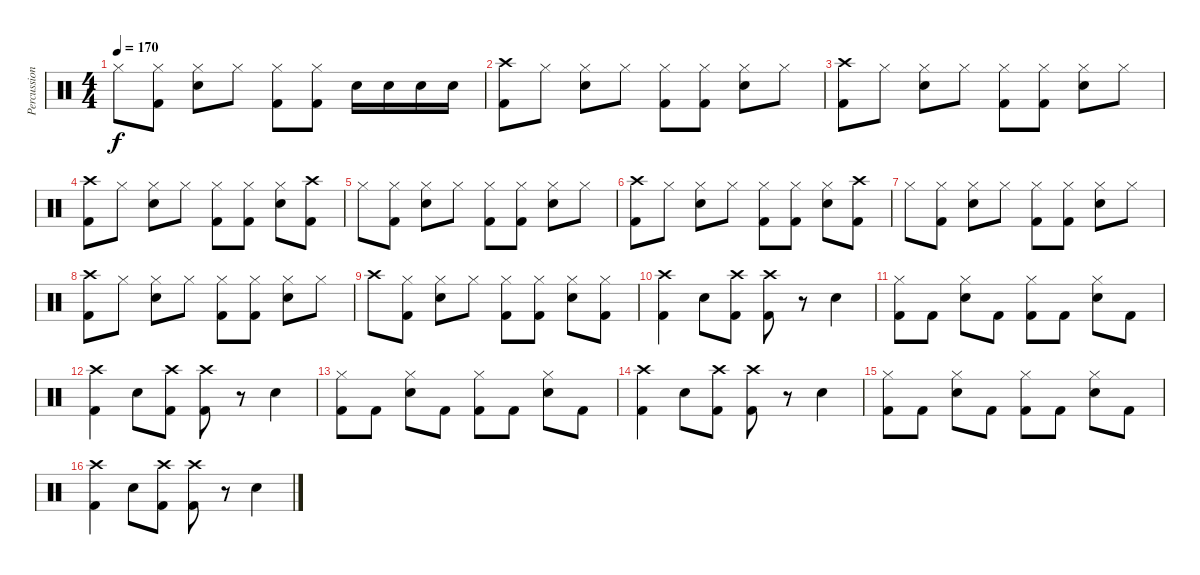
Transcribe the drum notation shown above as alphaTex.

\track ("Percussion" "Percussion") {instrument percussion}
\staff {score}
\articulation defaults
\ts (4 4)
\tempo 170
\clef neutral
\ks c "Hi-Hat (closed)".8{dy f}
("Hi-Hat (closed)" "Kick (hit) 2").8 ("Hi-Hat (closed)" "Snare (hit) 2").8 "Hi-Hat (closed)".8 ("Hi-Hat (closed)" "Kick (hit) 2").8 ("Hi-Hat (closed)" "Kick (hit) 2").8 "Snare (hit) 2".16 "Snare (hit) 2".16 "Snare (hit) 2".16 "Snare (hit) 2".16 |
("Crash high (hit)" "Kick (hit) 2").8 "Hi-Hat (closed)".8 ("Hi-Hat (closed)" "Snare (hit) 2").8 "Hi-Hat (closed)".8 ("Hi-Hat (closed)" "Kick (hit) 2").8 ("Hi-Hat (closed)" "Kick (hit) 2").8 ("Hi-Hat (closed)" "Snare (hit) 2").8 "Hi-Hat (closed)".8 |
("Crash high (hit)" "Kick (hit) 2").8 "Hi-Hat (closed)".8 ("Hi-Hat (closed)" "Snare (hit) 2").8 "Hi-Hat (closed)".8 ("Hi-Hat (closed)" "Kick (hit) 2").8 ("Hi-Hat (closed)" "Kick (hit) 2").8 ("Hi-Hat (closed)" "Snare (hit) 2").8 "Hi-Hat (closed)".8 |
("Crash high (hit)" "Kick (hit) 2").8 "Hi-Hat (closed)".8 ("Hi-Hat (closed)" "Snare (hit) 2").8 "Hi-Hat (closed)".8 ("Hi-Hat (closed)" "Kick (hit) 2").8 ("Hi-Hat (closed)" "Kick (hit) 2").8 ("Hi-Hat (closed)" "Snare (hit) 2").8 ("Crash high (hit)" "Kick (hit) 2").8 |
"Hi-Hat (closed)".8 ("Hi-Hat (closed)" "Kick (hit) 2").8 ("Hi-Hat (closed)" "Snare (hit) 2").8 "Hi-Hat (closed)".8 ("Hi-Hat (closed)" "Kick (hit) 2").8 ("Hi-Hat (closed)" "Kick (hit) 2").8 ("Hi-Hat (closed)" "Snare (hit) 2").8 "Hi-Hat (closed)".8 |
("Crash high (hit)" "Kick (hit) 2").8 "Hi-Hat (closed)".8 ("Hi-Hat (closed)" "Snare (hit) 2").8 "Hi-Hat (closed)".8 ("Hi-Hat (closed)" "Kick (hit) 2").8 ("Hi-Hat (closed)" "Kick (hit) 2").8 ("Hi-Hat (closed)" "Snare (hit) 2").8 ("Crash high (hit)" "Kick (hit) 2").8 |
"Hi-Hat (closed)".8 ("Hi-Hat (closed)" "Kick (hit) 2").8 ("Hi-Hat (closed)" "Snare (hit) 2").8 "Hi-Hat (closed)".8 ("Hi-Hat (closed)" "Kick (hit) 2").8 ("Hi-Hat (closed)" "Kick (hit) 2").8 ("Hi-Hat (closed)" "Snare (hit) 2").8 "Hi-Hat (closed)".8 |
("Crash high (hit)" "Kick (hit) 2").8 "Hi-Hat (closed)".8 ("Hi-Hat (closed)" "Snare (hit) 2").8 "Hi-Hat (closed)".8 ("Hi-Hat (closed)" "Kick (hit) 2").8 ("Hi-Hat (closed)" "Kick (hit) 2").8 ("Hi-Hat (closed)" "Snare (hit) 2").8 "Hi-Hat (closed)".8 |
"Crash high (hit)".8 ("Hi-Hat (closed)" "Kick (hit) 2").8 ("Hi-Hat (closed)" "Snare (hit) 2").8 "Hi-Hat (closed)".8 ("Hi-Hat (closed)" "Kick (hit) 2").8 ("Hi-Hat (closed)" "Kick (hit) 2").8 ("Hi-Hat (closed)" "Snare (hit) 2").8 ("Hi-Hat (closed)" "Kick (hit) 2").8 |
("Crash high (hit)" "Kick (hit) 2").4 "Snare (hit) 2".8 ("Crash high (hit)" "Kick (hit) 2").8 ("Crash high (hit)" "Kick (hit) 2").8 r.8 "Snare (hit) 2".4 |
("Hi-Hat (closed)" "Kick (hit) 2").8 "Kick (hit) 2".8 ("Hi-Hat (closed)" "Snare (hit) 2").8 "Kick (hit) 2".8 ("Hi-Hat (closed)" "Kick (hit) 2").8 "Kick (hit) 2".8 ("Hi-Hat (closed)" "Snare (hit) 2").8 "Kick (hit) 2".8 |
("Crash high (hit)" "Kick (hit) 2").4 "Snare (hit) 2".8 ("Crash high (hit)" "Kick (hit) 2").8 ("Crash high (hit)" "Kick (hit) 2").8 r.8 "Snare (hit) 2".4 |
("Hi-Hat (closed)" "Kick (hit) 2").8 "Kick (hit) 2".8 ("Hi-Hat (closed)" "Snare (hit) 2").8 "Kick (hit) 2".8 ("Hi-Hat (closed)" "Kick (hit) 2").8 "Kick (hit) 2".8 ("Hi-Hat (closed)" "Snare (hit) 2").8 "Kick (hit) 2".8 |
("Crash high (hit)" "Kick (hit) 2").4 "Snare (hit) 2".8 ("Crash high (hit)" "Kick (hit) 2").8 ("Crash high (hit)" "Kick (hit) 2").8 r.8 "Snare (hit) 2".4 |
("Hi-Hat (closed)" "Kick (hit) 2").8 "Kick (hit) 2".8 ("Hi-Hat (closed)" "Snare (hit) 2").8 "Kick (hit) 2".8 ("Hi-Hat (closed)" "Kick (hit) 2").8 "Kick (hit) 2".8 ("Hi-Hat (closed)" "Snare (hit) 2").8 "Kick (hit) 2".8 |
("Crash high (hit)" "Kick (hit) 2").4 "Snare (hit) 2".8 ("Crash high (hit)" "Kick (hit) 2").8 ("Crash high (hit)" "Kick (hit) 2").8 r.8 "Snare (hit) 2".4
